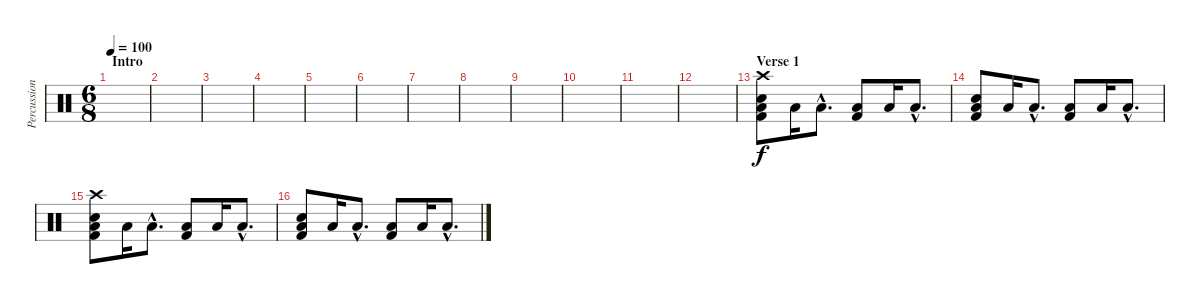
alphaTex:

\track ("Percussion" "Percussion") {instrument percussion}
\staff {score}
\articulation defaults
\ts (6 8)
\section ("" "Intro")
\tempo 100
\clef neutral
\ks c
|
|
|
|
|
|
|
|
|
|
|
|
\section ("" "Verse 1")
("Crash high (hit)" "Electric Snare (hit)" "Low Floor Tom (hit)" "Kick (hit) 2").8 "Low Floor Tom (hit)".16 "Low Floor Tom (hit)"{hac}.8{d} ("Low Floor Tom (hit)" "Kick (hit) 2").8 "Low Floor Tom (hit)".16 "Low Floor Tom (hit)"{hac}.8{d} |
("Electric Snare (hit)" "Low Floor Tom (hit)" "Kick (hit) 2").8 "Low Floor Tom (hit)".16 "Low Floor Tom (hit)"{hac}.8{d} ("Low Floor Tom (hit)" "Kick (hit) 2").8 "Low Floor Tom (hit)".16 "Low Floor Tom (hit)"{hac}.8{d} |
("Crash high (hit)" "Electric Snare (hit)" "Low Floor Tom (hit)" "Kick (hit) 2").8 "Low Floor Tom (hit)".16 "Low Floor Tom (hit)"{hac}.8{d} ("Low Floor Tom (hit)" "Kick (hit) 2").8 "Low Floor Tom (hit)".16 "Low Floor Tom (hit)"{hac}.8{d} |
("Electric Snare (hit)" "Low Floor Tom (hit)" "Kick (hit) 2").8 "Low Floor Tom (hit)".16 "Low Floor Tom (hit)"{hac}.8{d} ("Low Floor Tom (hit)" "Kick (hit) 2").8 "Low Floor Tom (hit)".16 "Low Floor Tom (hit)"{hac}.8{d}
